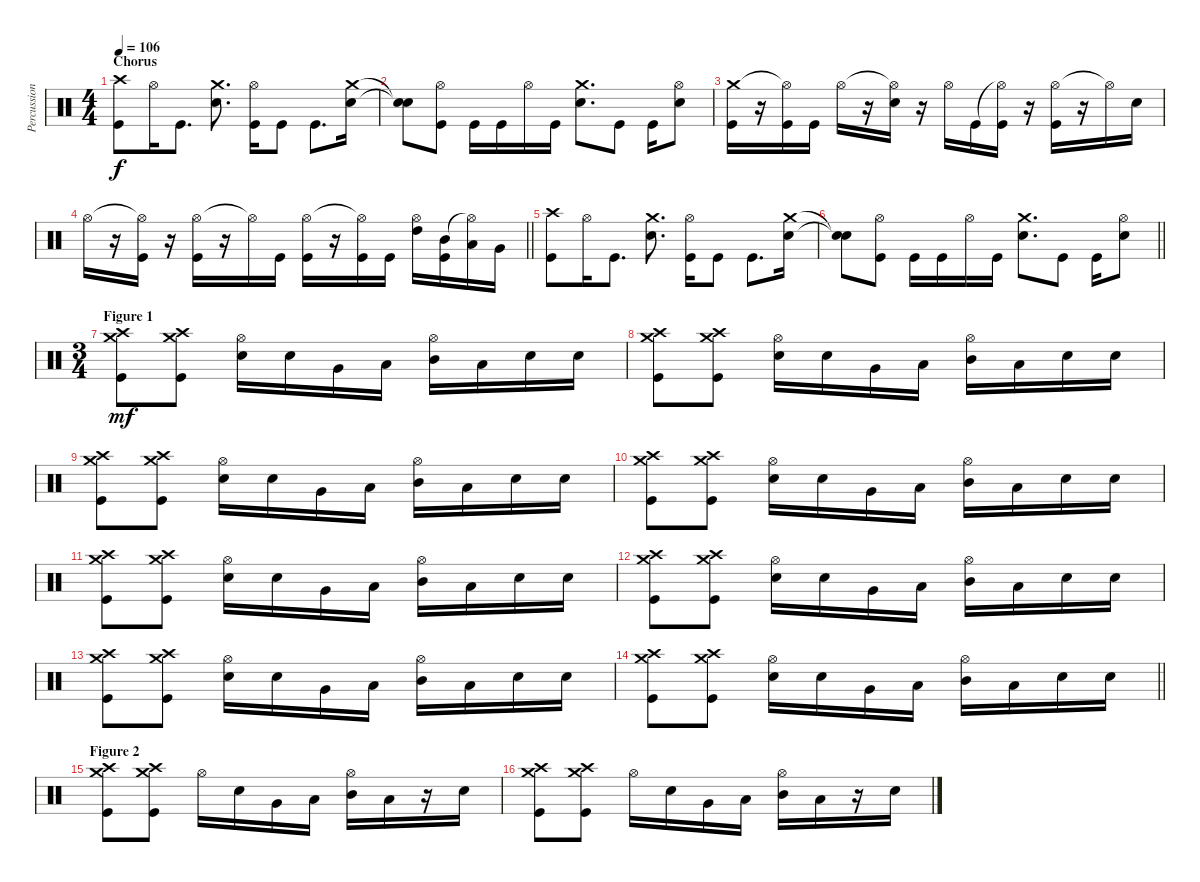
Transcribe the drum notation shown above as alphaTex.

\track ("Percussion" "Percussion") {instrument percussion}
\staff {score}
\articulation defaults
\ts (4 4)
\section ("" "Chorus")
\tempo 106
\clef neutral
\ks c
("Crash high (hit)" "Kick (hit)").8{dy f} "Hi-Hat (open)".16 "Kick (hit)".8{d} ("Crash medium (hit)" "Snare (hit) 2").8{d} ("Hi-Hat (open)" "Kick (hit)").16 "Kick (hit)".8 "Kick (hit)".8{d} ("Crash medium (hit)" "Snare (hit) 2").16 |
("Snare (hit)"{t} "Snare (hit)"{t}).8 ("Hi-Hat (open)" "Kick (hit)").8 "Kick (hit)".16 "Kick (hit)".16 "Hi-Hat (open)".16 "Kick (hit)".16 ("Crash medium (hit)" "Snare (hit) 2").8{d} "Kick (hit)".8 "Kick (hit)".16 ("Hi-Hat (open)" "Snare (hit) 2").8 |
("Crash medium (hit)" "Kick (hit)").16 r.16 ("Hi-Hat (open)"{t} "Kick (hit)").16 "Kick (hit)".16 "Hi-Hat (open)".16 r.16 ("Hi-Hat (open)"{t} "Snare (hit) 2").16 r.16 "Hi-Hat (open)".16 "Kick (hit)".16 ("Hi-Hat (open)"{t} "Kick (hit)").16 r.16 ("Hi-Hat (open)" "Kick (hit)").16 r.16 "Hi-Hat (open)"{t}.16 "Snare (hit) 2".16 |
\barLineRight lightlight "Hi-Hat (open)".16
r.16 ("Hi-Hat (open)"{t} "Kick (hit)").16 r.16 ("Hi-Hat (open)" "Kick (hit)").16 r.16 "Hi-Hat (open)"{t}.16 "Kick (hit)".16 ("Hi-Hat (open)" "Kick (hit)").16 r.16 ("Hi-Hat (open)"{t} "Kick (hit)").16 "Kick (hit)".16 ("Hi-Hat (open)" "High Tom (hit)").16 ("Mid Tom (hit)" "Kick (hit)").16 ("Hi-Hat (open)"{t} "Low Tom (hit)").16 "Very Low Tom (hit)".16 |
("Crash high (hit)" "Kick (hit)").8 "Hi-Hat (open)".16 "Kick (hit)".8{d} ("Crash medium (hit)" "Snare (hit) 2").8{d} ("Hi-Hat (open)" "Kick (hit)").16 "Kick (hit)".8 "Kick (hit)".8{d} ("Crash medium (hit)" "Snare (hit) 2").16 |
\barLineRight lightlight
("Snare (hit)"{t} "Snare (hit)"{t}).8 ("Hi-Hat (open)" "Kick (hit)").8 "Kick (hit)".16 "Kick (hit)".16 "Hi-Hat (open)".16 "Kick (hit)".16 ("Crash medium (hit)" "Snare (hit) 2").8{d} "Kick (hit)".8 "Kick (hit)".16 ("Hi-Hat (open)" "Snare (hit) 2").8 |
\ts (3 4)
\section ("" "Figure 1")
("Crash high (hit)" "Crash medium (hit)" "Kick (hit)").8{dy mf} ("Crash high (hit)" "Crash medium (hit)" "Kick (hit)").8 ("Hi-Hat (open)" "Snare (hit) 2").16 "Snare (hit) 2".16 "Very Low Tom (hit)".16 "Low Tom (hit)".16 ("Hi-Hat (open)" "Mid Tom (hit)").16 "Low Tom (hit)".16 "Snare (hit) 2".16 "Snare (hit) 2".16 |
("Crash high (hit)" "Crash medium (hit)" "Kick (hit)").8 ("Crash high (hit)" "Crash medium (hit)" "Kick (hit)").8 ("Hi-Hat (open)" "Snare (hit) 2").16 "Snare (hit) 2".16 "Very Low Tom (hit)".16 "Low Tom (hit)".16 ("Hi-Hat (open)" "Mid Tom (hit)").16 "Low Tom (hit)".16 "Snare (hit) 2".16 "Snare (hit) 2".16 |
("Crash high (hit)" "Crash medium (hit)" "Kick (hit)").8 ("Crash high (hit)" "Crash medium (hit)" "Kick (hit)").8 ("Hi-Hat (open)" "Snare (hit) 2").16 "Snare (hit) 2".16 "Very Low Tom (hit)".16 "Low Tom (hit)".16 ("Hi-Hat (open)" "Mid Tom (hit)").16 "Low Tom (hit)".16 "Snare (hit) 2".16 "Snare (hit) 2".16 |
("Crash high (hit)" "Crash medium (hit)" "Kick (hit)").8 ("Crash high (hit)" "Crash medium (hit)" "Kick (hit)").8 ("Hi-Hat (open)" "Snare (hit) 2").16 "Snare (hit) 2".16 "Very Low Tom (hit)".16 "Low Tom (hit)".16 ("Hi-Hat (open)" "Mid Tom (hit)").16 "Low Tom (hit)".16 "Snare (hit) 2".16 "Snare (hit) 2".16 |
("Crash high (hit)" "Crash medium (hit)" "Kick (hit)").8 ("Crash high (hit)" "Crash medium (hit)" "Kick (hit)").8 ("Hi-Hat (open)" "Snare (hit) 2").16 "Snare (hit) 2".16 "Very Low Tom (hit)".16 "Low Tom (hit)".16 ("Hi-Hat (open)" "Mid Tom (hit)").16 "Low Tom (hit)".16 "Snare (hit) 2".16 "Snare (hit) 2".16 |
("Crash high (hit)" "Crash medium (hit)" "Kick (hit)").8 ("Crash high (hit)" "Crash medium (hit)" "Kick (hit)").8 ("Hi-Hat (open)" "Snare (hit) 2").16 "Snare (hit) 2".16 "Very Low Tom (hit)".16 "Low Tom (hit)".16 ("Hi-Hat (open)" "Mid Tom (hit)").16 "Low Tom (hit)".16 "Snare (hit) 2".16 "Snare (hit) 2".16 |
("Crash high (hit)" "Crash medium (hit)" "Kick (hit)").8 ("Crash high (hit)" "Crash medium (hit)" "Kick (hit)").8 ("Hi-Hat (open)" "Snare (hit) 2").16 "Snare (hit) 2".16 "Very Low Tom (hit)".16 "Low Tom (hit)".16 ("Hi-Hat (open)" "Mid Tom (hit)").16 "Low Tom (hit)".16 "Snare (hit) 2".16 "Snare (hit) 2".16 |
\barLineRight lightlight
("Crash high (hit)" "Crash medium (hit)" "Kick (hit)").8 ("Crash high (hit)" "Crash medium (hit)" "Kick (hit)").8 ("Hi-Hat (open)" "Snare (hit) 2").16 "Snare (hit) 2".16 "Very Low Tom (hit)".16 "Low Tom (hit)".16 ("Hi-Hat (open)" "Mid Tom (hit)").16 "Low Tom (hit)".16 "Snare (hit) 2".16 "Snare (hit) 2".16 |
\section ("" "Figure 2")
("Crash high (hit)" "Crash medium (hit)" "Kick (hit)").8 ("Crash high (hit)" "Crash medium (hit)" "Kick (hit)").8 "Hi-Hat (open)".16 "Snare (hit) 2".16 "Very Low Tom (hit)".16 "Low Tom (hit)".16 ("Hi-Hat (open)" "Mid Tom (hit)").16 "Low Tom (hit)".16 r.16 "Snare (hit) 2".16 |
("Crash high (hit)" "Crash medium (hit)" "Kick (hit)").8 ("Crash high (hit)" "Crash medium (hit)" "Kick (hit)").8 "Hi-Hat (open)".16 "Snare (hit) 2".16 "Very Low Tom (hit)".16 "Low Tom (hit)".16 ("Hi-Hat (open)" "Mid Tom (hit)").16 "Low Tom (hit)".16 r.16 "Snare (hit) 2".16
